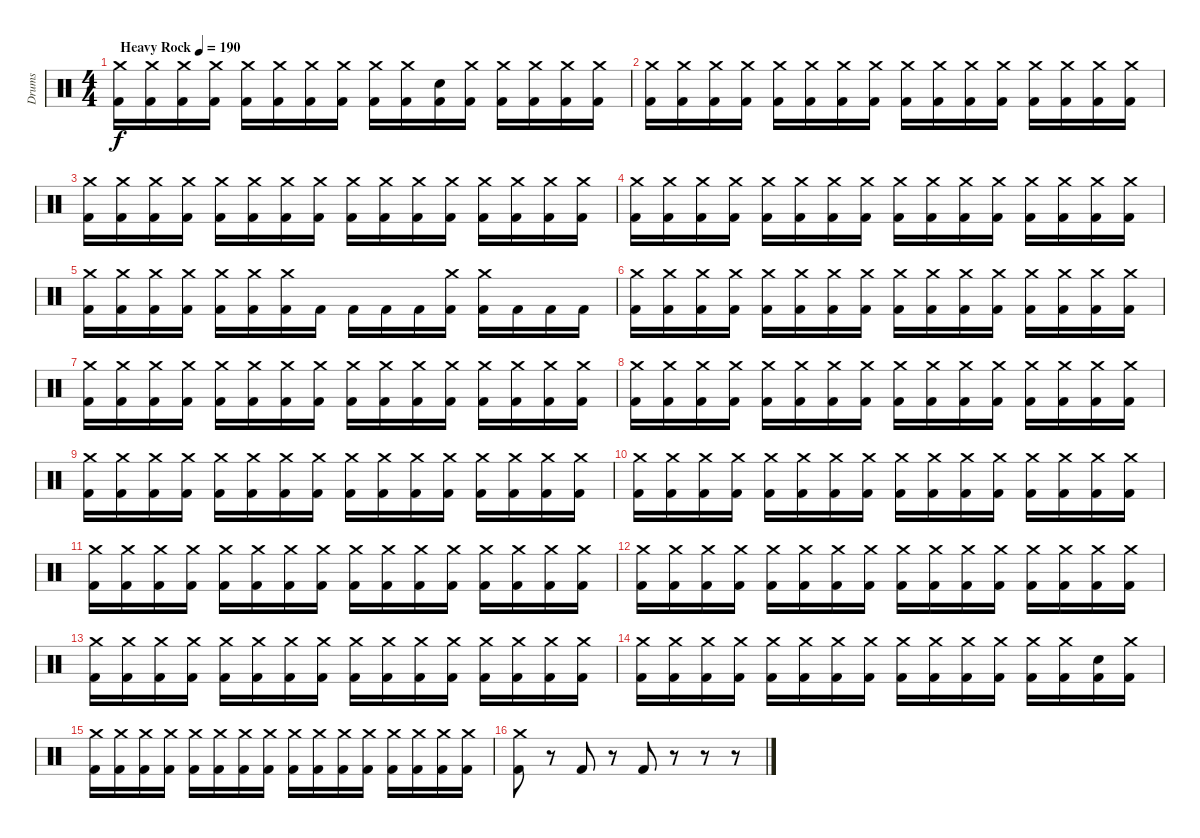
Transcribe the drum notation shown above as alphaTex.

\track ("Drums" "Drums") {instrument percussion}
\staff {score}
\articulation defaults
\ts (4 4)
\tempo (190 "Heavy Rock")
\clef neutral
\ks c
("Crash medium (hit)" "Kick (hit) 2").16{dy f} ("Crash medium (hit)" "Kick (hit) 2").16 ("Crash medium (hit)" "Kick (hit) 2").16 ("Crash medium (hit)" "Kick (hit) 2").16 ("Crash medium (hit)" "Kick (hit) 2").16 ("Crash medium (hit)" "Kick (hit) 2").16 ("Crash medium (hit)" "Kick (hit) 2").16 ("Crash medium (hit)" "Kick (hit) 2").16 ("Crash medium (hit)" "Kick (hit) 2").16 ("Crash medium (hit)" "Kick (hit) 2").16 ("Snare (hit)" "Kick (hit) 2").16 ("Crash medium (hit)" "Kick (hit) 2").16 ("Crash medium (hit)" "Kick (hit) 2").16 ("Crash medium (hit)" "Kick (hit) 2").16 ("Crash medium (hit)" "Kick (hit) 2").16 ("Crash medium (hit)" "Kick (hit) 2").16 |
("Crash medium (hit)" "Kick (hit) 2").16 ("Crash medium (hit)" "Kick (hit) 2").16 ("Crash medium (hit)" "Kick (hit) 2").16 ("Crash medium (hit)" "Kick (hit) 2").16 ("Crash medium (hit)" "Kick (hit) 2").16 ("Crash medium (hit)" "Kick (hit) 2").16 ("Crash medium (hit)" "Kick (hit) 2").16 ("Crash medium (hit)" "Kick (hit) 2").16 ("Crash medium (hit)" "Kick (hit) 2").16 ("Crash medium (hit)" "Kick (hit) 2").16 ("Crash medium (hit)" "Kick (hit) 2").16 ("Crash medium (hit)" "Kick (hit) 2").16 ("Crash medium (hit)" "Kick (hit) 2").16 ("Crash medium (hit)" "Kick (hit) 2").16 ("Crash medium (hit)" "Kick (hit) 2").16 ("Crash medium (hit)" "Kick (hit) 2").16 |
("Crash medium (hit)" "Kick (hit) 2").16 ("Crash medium (hit)" "Kick (hit) 2").16 ("Crash medium (hit)" "Kick (hit) 2").16 ("Crash medium (hit)" "Kick (hit) 2").16 ("Crash medium (hit)" "Kick (hit) 2").16 ("Crash medium (hit)" "Kick (hit) 2").16 ("Crash medium (hit)" "Kick (hit) 2").16 ("Crash medium (hit)" "Kick (hit) 2").16 ("Crash medium (hit)" "Kick (hit) 2").16 ("Crash medium (hit)" "Kick (hit) 2").16 ("Crash medium (hit)" "Kick (hit) 2").16 ("Crash medium (hit)" "Kick (hit) 2").16 ("Crash medium (hit)" "Kick (hit) 2").16 ("Crash medium (hit)" "Kick (hit) 2").16 ("Crash medium (hit)" "Kick (hit) 2").16 ("Crash medium (hit)" "Kick (hit) 2").16 |
("Crash medium (hit)" "Kick (hit) 2").16 ("Crash medium (hit)" "Kick (hit) 2").16 ("Crash medium (hit)" "Kick (hit) 2").16 ("Crash medium (hit)" "Kick (hit) 2").16 ("Crash medium (hit)" "Kick (hit) 2").16 ("Crash medium (hit)" "Kick (hit) 2").16 ("Crash medium (hit)" "Kick (hit) 2").16 ("Crash medium (hit)" "Kick (hit) 2").16 ("Crash medium (hit)" "Kick (hit) 2").16 ("Crash medium (hit)" "Kick (hit) 2").16 ("Crash medium (hit)" "Kick (hit) 2").16 ("Crash medium (hit)" "Kick (hit) 2").16 ("Crash medium (hit)" "Kick (hit) 2").16 ("Crash medium (hit)" "Kick (hit) 2").16 ("Crash medium (hit)" "Kick (hit) 2").16 ("Crash medium (hit)" "Kick (hit) 2").16 |
("Crash medium (hit)" "Kick (hit) 2").16 ("Crash medium (hit)" "Kick (hit) 2").16 ("Crash medium (hit)" "Kick (hit) 2").16 ("Crash medium (hit)" "Kick (hit) 2").16 ("Crash medium (hit)" "Kick (hit) 2").16 ("Crash medium (hit)" "Kick (hit) 2").16 ("Crash medium (hit)" "Kick (hit) 2").16 "Kick (hit) 2".16 "Kick (hit) 2".16 "Kick (hit) 2".16 "Kick (hit) 2".16 ("Crash medium (hit)" "Kick (hit) 2").16 ("Crash medium (hit)" "Kick (hit) 2").16 "Kick (hit) 2".16 "Kick (hit) 2".16 "Kick (hit) 2".16 |
("Crash medium (hit)" "Kick (hit) 2").16 ("Crash medium (hit)" "Kick (hit) 2").16 ("Crash medium (hit)" "Kick (hit) 2").16 ("Crash medium (hit)" "Kick (hit) 2").16 ("Crash medium (hit)" "Kick (hit) 2").16 ("Crash medium (hit)" "Kick (hit) 2").16 ("Crash medium (hit)" "Kick (hit) 2").16 ("Crash medium (hit)" "Kick (hit) 2").16 ("Crash medium (hit)" "Kick (hit) 2").16 ("Crash medium (hit)" "Kick (hit) 2").16 ("Crash medium (hit)" "Kick (hit) 2").16 ("Crash medium (hit)" "Kick (hit) 2").16 ("Crash medium (hit)" "Kick (hit) 2").16 ("Crash medium (hit)" "Kick (hit) 2").16 ("Crash medium (hit)" "Kick (hit) 2").16 ("Crash medium (hit)" "Kick (hit) 2").16 |
("Crash medium (hit)" "Kick (hit) 2").16 ("Crash medium (hit)" "Kick (hit) 2").16 ("Crash medium (hit)" "Kick (hit) 2").16 ("Crash medium (hit)" "Kick (hit) 2").16 ("Crash medium (hit)" "Kick (hit) 2").16 ("Crash medium (hit)" "Kick (hit) 2").16 ("Crash medium (hit)" "Kick (hit) 2").16 ("Crash medium (hit)" "Kick (hit) 2").16 ("Crash medium (hit)" "Kick (hit) 2").16 ("Crash medium (hit)" "Kick (hit) 2").16 ("Crash medium (hit)" "Kick (hit) 2").16 ("Crash medium (hit)" "Kick (hit) 2").16 ("Crash medium (hit)" "Kick (hit) 2").16 ("Crash medium (hit)" "Kick (hit) 2").16 ("Crash medium (hit)" "Kick (hit) 2").16 ("Crash medium (hit)" "Kick (hit) 2").16 |
("Crash medium (hit)" "Kick (hit) 2").16 ("Crash medium (hit)" "Kick (hit) 2").16 ("Crash medium (hit)" "Kick (hit) 2").16 ("Crash medium (hit)" "Kick (hit) 2").16 ("Crash medium (hit)" "Kick (hit) 2").16 ("Crash medium (hit)" "Kick (hit) 2").16 ("Crash medium (hit)" "Kick (hit) 2").16 ("Crash medium (hit)" "Kick (hit) 2").16 ("Crash medium (hit)" "Kick (hit) 2").16 ("Crash medium (hit)" "Kick (hit) 2").16 ("Crash medium (hit)" "Kick (hit) 2").16 ("Crash medium (hit)" "Kick (hit) 2").16 ("Crash medium (hit)" "Kick (hit) 2").16 ("Crash medium (hit)" "Kick (hit) 2").16 ("Crash medium (hit)" "Kick (hit) 2").16 ("Crash medium (hit)" "Kick (hit) 2").16 |
("Crash medium (hit)" "Kick (hit) 2").16 ("Crash medium (hit)" "Kick (hit) 2").16 ("Crash medium (hit)" "Kick (hit) 2").16 ("Crash medium (hit)" "Kick (hit) 2").16 ("Crash medium (hit)" "Kick (hit) 2").16 ("Crash medium (hit)" "Kick (hit) 2").16 ("Crash medium (hit)" "Kick (hit) 2").16 ("Crash medium (hit)" "Kick (hit) 2").16 ("Crash medium (hit)" "Kick (hit) 2").16 ("Crash medium (hit)" "Kick (hit) 2").16 ("Crash medium (hit)" "Kick (hit) 2").16 ("Crash medium (hit)" "Kick (hit) 2").16 ("Crash medium (hit)" "Kick (hit) 2").16 ("Crash medium (hit)" "Kick (hit) 2").16 ("Crash medium (hit)" "Kick (hit) 2").16 ("Crash medium (hit)" "Kick (hit) 2").16 |
("Crash medium (hit)" "Kick (hit) 2").16 ("Crash medium (hit)" "Kick (hit) 2").16 ("Crash medium (hit)" "Kick (hit) 2").16 ("Crash medium (hit)" "Kick (hit) 2").16 ("Crash medium (hit)" "Kick (hit) 2").16 ("Crash medium (hit)" "Kick (hit) 2").16 ("Crash medium (hit)" "Kick (hit) 2").16 ("Crash medium (hit)" "Kick (hit) 2").16 ("Crash medium (hit)" "Kick (hit) 2").16 ("Crash medium (hit)" "Kick (hit) 2").16 ("Crash medium (hit)" "Kick (hit) 2").16 ("Crash medium (hit)" "Kick (hit) 2").16 ("Crash medium (hit)" "Kick (hit) 2").16 ("Crash medium (hit)" "Kick (hit) 2").16 ("Crash medium (hit)" "Kick (hit) 2").16 ("Crash medium (hit)" "Kick (hit) 2").16 |
("Crash medium (hit)" "Kick (hit) 2").16 ("Crash medium (hit)" "Kick (hit) 2").16 ("Crash medium (hit)" "Kick (hit) 2").16 ("Crash medium (hit)" "Kick (hit) 2").16 ("Crash medium (hit)" "Kick (hit) 2").16 ("Crash medium (hit)" "Kick (hit) 2").16 ("Crash medium (hit)" "Kick (hit) 2").16 ("Crash medium (hit)" "Kick (hit) 2").16 ("Crash medium (hit)" "Kick (hit) 2").16 ("Crash medium (hit)" "Kick (hit) 2").16 ("Crash medium (hit)" "Kick (hit) 2").16 ("Crash medium (hit)" "Kick (hit) 2").16 ("Crash medium (hit)" "Kick (hit) 2").16 ("Crash medium (hit)" "Kick (hit) 2").16 ("Crash medium (hit)" "Kick (hit) 2").16 ("Crash medium (hit)" "Kick (hit) 2").16 |
("Crash medium (hit)" "Kick (hit) 2").16 ("Crash medium (hit)" "Kick (hit) 2").16 ("Crash medium (hit)" "Kick (hit) 2").16 ("Crash medium (hit)" "Kick (hit) 2").16 ("Crash medium (hit)" "Kick (hit) 2").16 ("Crash medium (hit)" "Kick (hit) 2").16 ("Crash medium (hit)" "Kick (hit) 2").16 ("Crash medium (hit)" "Kick (hit) 2").16 ("Crash medium (hit)" "Kick (hit) 2").16 ("Crash medium (hit)" "Kick (hit) 2").16 ("Crash medium (hit)" "Kick (hit) 2").16 ("Crash medium (hit)" "Kick (hit) 2").16 ("Crash medium (hit)" "Kick (hit) 2").16 ("Crash medium (hit)" "Kick (hit) 2").16 ("Crash medium (hit)" "Kick (hit) 2").16 ("Crash medium (hit)" "Kick (hit) 2").16 |
("Crash medium (hit)" "Kick (hit) 2").16 ("Crash medium (hit)" "Kick (hit) 2").16 ("Crash medium (hit)" "Kick (hit) 2").16 ("Crash medium (hit)" "Kick (hit) 2").16 ("Crash medium (hit)" "Kick (hit) 2").16 ("Crash medium (hit)" "Kick (hit) 2").16 ("Crash medium (hit)" "Kick (hit) 2").16 ("Crash medium (hit)" "Kick (hit) 2").16 ("Crash medium (hit)" "Kick (hit) 2").16 ("Crash medium (hit)" "Kick (hit) 2").16 ("Crash medium (hit)" "Kick (hit) 2").16 ("Crash medium (hit)" "Kick (hit) 2").16 ("Crash medium (hit)" "Kick (hit) 2").16 ("Crash medium (hit)" "Kick (hit) 2").16 ("Crash medium (hit)" "Kick (hit) 2").16 ("Crash medium (hit)" "Kick (hit) 2").16 |
("Crash medium (hit)" "Kick (hit) 2").16 ("Crash medium (hit)" "Kick (hit) 2").16 ("Crash medium (hit)" "Kick (hit) 2").16 ("Crash medium (hit)" "Kick (hit) 2").16 ("Crash medium (hit)" "Kick (hit) 2").16 ("Crash medium (hit)" "Kick (hit) 2").16 ("Crash medium (hit)" "Kick (hit) 2").16 ("Crash medium (hit)" "Kick (hit) 2").16 ("Crash medium (hit)" "Kick (hit) 2").16 ("Crash medium (hit)" "Kick (hit) 2").16 ("Crash medium (hit)" "Kick (hit) 2").16 ("Crash medium (hit)" "Kick (hit) 2").16 ("Crash medium (hit)" "Kick (hit) 2").16 ("Crash medium (hit)" "Kick (hit) 2").16 ("Snare (hit)" "Kick (hit) 2").16 ("Crash medium (hit)" "Kick (hit) 2").16 |
("Crash medium (hit)" "Kick (hit) 2").16 ("Crash medium (hit)" "Kick (hit) 2").16 ("Crash medium (hit)" "Kick (hit) 2").16 ("Crash medium (hit)" "Kick (hit) 2").16 ("Crash medium (hit)" "Kick (hit) 2").16 ("Crash medium (hit)" "Kick (hit) 2").16 ("Crash medium (hit)" "Kick (hit) 2").16 ("Crash medium (hit)" "Kick (hit) 2").16 ("Crash medium (hit)" "Kick (hit) 2").16 ("Crash medium (hit)" "Kick (hit) 2").16 ("Crash medium (hit)" "Kick (hit) 2").16 ("Crash medium (hit)" "Kick (hit) 2").16 ("Crash medium (hit)" "Kick (hit) 2").16 ("Crash medium (hit)" "Kick (hit) 2").16 ("Crash medium (hit)" "Kick (hit) 2").16 ("Crash medium (hit)" "Kick (hit) 2").16 |
("Crash medium (hit)" "Kick (hit) 2").8 r.8 "Kick (hit) 2".8 r.8 "Kick (hit) 2".8 r.8 r.8 r.8
